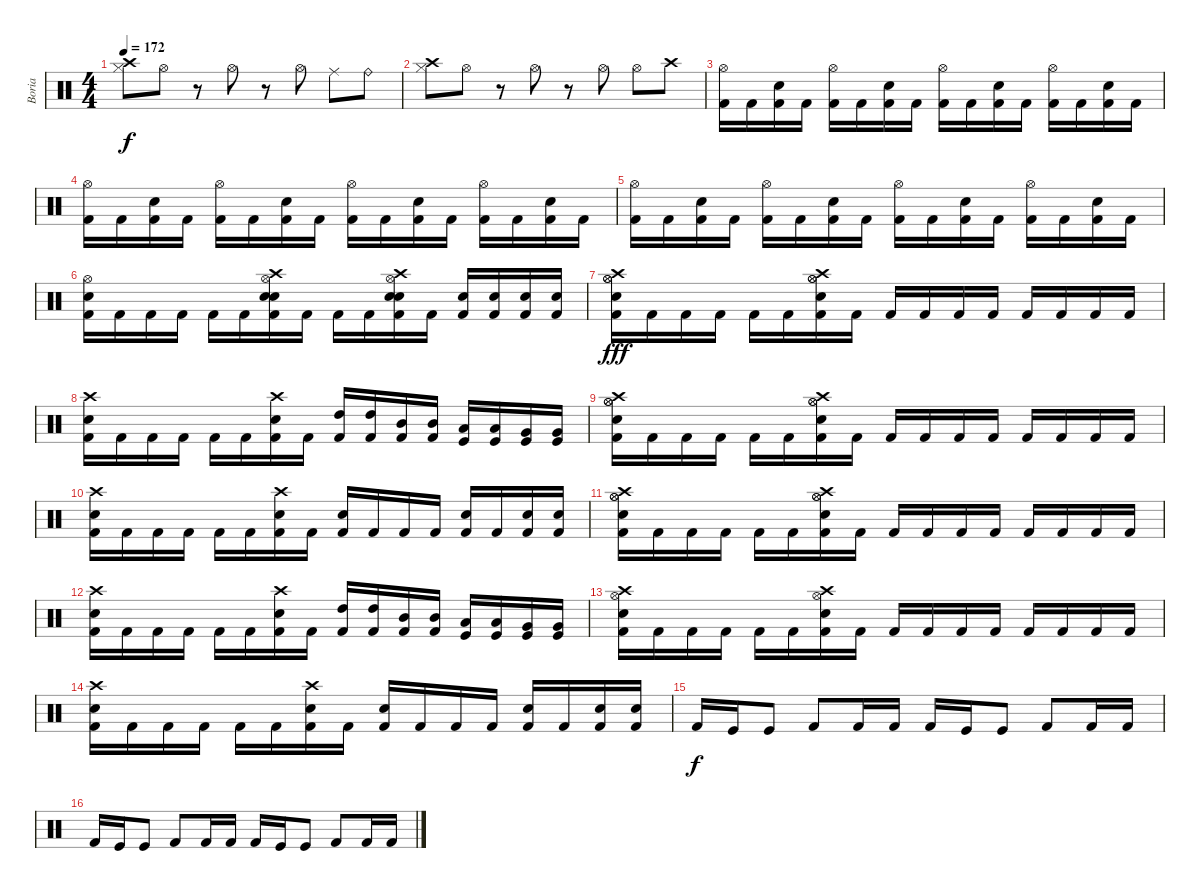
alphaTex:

\track ("Boria" "Boria") {instrument percussion}
\staff {score}
\articulation defaults
\ts (4 4)
\tempo 172
\clef neutral
\ks c
("Hi-Hat (closed)" "Crash high (hit)").8{dy f} "Hi-Hat (open)".8 r.8 "Hi-Hat (open)".8 r.8 "Hi-Hat (open)".8 "Ride (middle)".8 "Ride (bell)".8 |
("Hi-Hat (closed)" "Crash high (hit)").8 "Hi-Hat (open)".8 r.8 "Hi-Hat (open)".8 r.8 "Hi-Hat (open)".8 "Hi-Hat (open)".8 "Crash high (hit)".8 |
("Hi-Hat (open)" "Kick (hit) 2").16 "Kick (hit) 2".16 ("Electric Snare (hit)" "Kick (hit) 2").16 "Kick (hit) 2".16 ("Hi-Hat (open)" "Kick (hit) 2").16 "Kick (hit) 2".16 ("Electric Snare (hit)" "Kick (hit) 2").16 "Kick (hit) 2".16 ("Hi-Hat (open)" "Kick (hit) 2").16 "Kick (hit) 2".16 ("Electric Snare (hit)" "Kick (hit) 2").16 "Kick (hit) 2".16 ("Hi-Hat (open)" "Kick (hit) 2").16 "Kick (hit) 2".16 ("Electric Snare (hit)" "Kick (hit) 2").16 "Kick (hit) 2".16 |
("Hi-Hat (open)" "Kick (hit) 2").16 "Kick (hit) 2".16 ("Electric Snare (hit)" "Kick (hit) 2").16 "Kick (hit) 2".16 ("Hi-Hat (open)" "Kick (hit) 2").16 "Kick (hit) 2".16 ("Electric Snare (hit)" "Kick (hit) 2").16 "Kick (hit) 2".16 ("Hi-Hat (open)" "Kick (hit) 2").16 "Kick (hit) 2".16 ("Electric Snare (hit)" "Kick (hit) 2").16 "Kick (hit) 2".16 ("Hi-Hat (open)" "Kick (hit) 2").16 "Kick (hit) 2".16 ("Electric Snare (hit)" "Kick (hit) 2").16 "Kick (hit) 2".16 |
("Hi-Hat (open)" "Kick (hit) 2").16 "Kick (hit) 2".16 ("Electric Snare (hit)" "Kick (hit) 2").16 "Kick (hit) 2".16 ("Hi-Hat (open)" "Kick (hit) 2").16 "Kick (hit) 2".16 ("Electric Snare (hit)" "Kick (hit) 2").16 "Kick (hit) 2".16 ("Hi-Hat (open)" "Kick (hit) 2").16 "Kick (hit) 2".16 ("Electric Snare (hit)" "Kick (hit) 2").16 "Kick (hit) 2".16 ("Hi-Hat (open)" "Kick (hit) 2").16 "Kick (hit) 2".16 ("Electric Snare (hit)" "Kick (hit) 2").16 "Kick (hit) 2".16 |
("Hi-Hat (open)" "Electric Snare (hit)" "Kick (hit) 2").16 "Kick (hit) 2".16 "Kick (hit) 2".16 "Kick (hit) 2".16 "Kick (hit) 2".16 "Kick (hit) 2".16 ("Hi-Hat (open)" "Crash high (hit)" "Electric Snare (hit)" "Snare (hit) 2" "Kick (hit) 2").16 "Kick (hit) 2".16 "Kick (hit) 2".16 "Kick (hit) 2".16 ("Hi-Hat (open)" "Crash high (hit)" "Electric Snare (hit)" "Snare (hit) 2" "Kick (hit) 2").16 "Kick (hit) 2".16 ("Electric Snare (hit)" "Kick (hit) 2").16 ("Snare (hit) 2" "Kick (hit) 2").16 ("Electric Snare (hit)" "Kick (hit) 2").16 ("Snare (hit) 2" "Kick (hit) 2").16 |
("Crash high (hit)" "Hi-Hat (open)" "Hi-Hat (open)" "Snare (hit) 2" "Kick (hit) 2").16{dy fff} "Kick (hit) 2".16 "Kick (hit) 2".16 "Kick (hit) 2".16 "Kick (hit) 2".16 "Kick (hit) 2".16 ("Crash high (hit)" "Hi-Hat (open)" "Hi-Hat (open)" "Snare (hit) 2" "Kick (hit) 2").16 "Kick (hit) 2".16 "Kick (hit) 2".16 "Kick (hit) 2".16 "Kick (hit) 2".16 "Kick (hit) 2".16 "Kick (hit) 2".16 "Kick (hit) 2".16 "Kick (hit) 2".16 "Kick (hit) 2".16 |
("Crash high (hit)" "Snare (hit) 2" "Kick (hit) 2").16 "Kick (hit) 2".16 "Kick (hit) 2".16 "Kick (hit) 2".16 "Kick (hit) 2".16 "Kick (hit) 2".16 ("Crash high (hit)" "Snare (hit) 2" "Kick (hit) 2").16 "Kick (hit) 2".16 ("High Tom (hit)" "Kick (hit) 2").16 ("High Tom (hit)" "Kick (hit) 2").16 ("Mid Tom (hit)" "Kick (hit) 2").16 ("Mid Tom (hit)" "Kick (hit) 2").16 ("Low Tom (hit)" "Kick (hit)").16 ("Low Tom (hit)" "Kick (hit)").16 ("Very Low Tom (hit)" "Kick (hit)").16 ("Very Low Tom (hit)" "Kick (hit)").16 |
("Crash high (hit)" "Hi-Hat (open)" "Hi-Hat (open)" "Snare (hit) 2" "Kick (hit) 2").16 "Kick (hit) 2".16 "Kick (hit) 2".16 "Kick (hit) 2".16 "Kick (hit) 2".16 "Kick (hit) 2".16 ("Crash high (hit)" "Hi-Hat (open)" "Hi-Hat (open)" "Snare (hit) 2" "Kick (hit) 2").16 "Kick (hit) 2".16 "Kick (hit) 2".16 "Kick (hit) 2".16 "Kick (hit) 2".16 "Kick (hit) 2".16 "Kick (hit) 2".16 "Kick (hit) 2".16 "Kick (hit) 2".16 "Kick (hit) 2".16 |
("Crash high (hit)" "Snare (hit) 2" "Kick (hit) 2").16 "Kick (hit) 2".16 "Kick (hit) 2".16 "Kick (hit) 2".16 "Kick (hit) 2".16 "Kick (hit) 2".16 ("Crash high (hit)" "Snare (hit) 2" "Kick (hit) 2").16 "Kick (hit) 2".16 ("Snare (hit) 2" "Kick (hit) 2").16 "Kick (hit) 2".16 "Kick (hit) 2".16 "Kick (hit) 2".16 ("Electric Snare (hit)" "Kick (hit) 2").16 "Kick (hit) 2".16 ("Electric Snare (hit)" "Kick (hit) 2").16 ("Electric Snare (hit)" "Kick (hit) 2").16 |
("Crash high (hit)" "Hi-Hat (open)" "Hi-Hat (open)" "Snare (hit) 2" "Kick (hit) 2").16 "Kick (hit) 2".16 "Kick (hit) 2".16 "Kick (hit) 2".16 "Kick (hit) 2".16 "Kick (hit) 2".16 ("Crash high (hit)" "Hi-Hat (open)" "Hi-Hat (open)" "Snare (hit) 2" "Kick (hit) 2").16 "Kick (hit) 2".16 "Kick (hit) 2".16 "Kick (hit) 2".16 "Kick (hit) 2".16 "Kick (hit) 2".16 "Kick (hit) 2".16 "Kick (hit) 2".16 "Kick (hit) 2".16 "Kick (hit) 2".16 |
("Crash high (hit)" "Snare (hit) 2" "Kick (hit) 2").16 "Kick (hit) 2".16 "Kick (hit) 2".16 "Kick (hit) 2".16 "Kick (hit) 2".16 "Kick (hit) 2".16 ("Crash high (hit)" "Snare (hit) 2" "Kick (hit) 2").16 "Kick (hit) 2".16 ("High Tom (hit)" "Kick (hit) 2").16 ("High Tom (hit)" "Kick (hit) 2").16 ("Mid Tom (hit)" "Kick (hit) 2").16 ("Mid Tom (hit)" "Kick (hit) 2").16 ("Low Tom (hit)" "Kick (hit)").16 ("Low Tom (hit)" "Kick (hit)").16 ("Very Low Tom (hit)" "Kick (hit)").16 ("Very Low Tom (hit)" "Kick (hit)").16 |
("Crash high (hit)" "Hi-Hat (open)" "Snare (hit) 2" "Kick (hit) 2").16 "Kick (hit) 2".16 "Kick (hit) 2".16 "Kick (hit) 2".16 "Kick (hit) 2".16 "Kick (hit) 2".16 ("Crash high (hit)" "Hi-Hat (open)" "Snare (hit) 2" "Kick (hit) 2").16 "Kick (hit) 2".16 "Kick (hit) 2".16 "Kick (hit) 2".16 "Kick (hit) 2".16 "Kick (hit) 2".16 "Kick (hit) 2".16 "Kick (hit) 2".16 "Kick (hit) 2".16 "Kick (hit) 2".16 |
("Crash high (hit)" "Snare (hit) 2" "Kick (hit) 2").16 "Kick (hit) 2".16 "Kick (hit) 2".16 "Kick (hit) 2".16 "Kick (hit) 2".16 "Kick (hit) 2".16 ("Crash high (hit)" "Snare (hit) 2" "Kick (hit) 2").16 "Kick (hit) 2".16 ("Snare (hit) 2" "Kick (hit) 2").16 "Kick (hit) 2".16 "Kick (hit) 2".16 "Kick (hit) 2".16 ("Snare (hit) 2" "Kick (hit) 2").16 "Kick (hit) 2".16 ("Electric Snare (hit)" "Kick (hit) 2").16 ("Electric Snare (hit)" "Kick (hit) 2").16 |
"Kick (hit) 2".16{dy f} "Kick (hit)".16 "Kick (hit)".8 "Kick (hit) 2".8 "Kick (hit) 2".16 "Kick (hit) 2".16 "Kick (hit) 2".16 "Kick (hit)".16 "Kick (hit)".8 "Kick (hit) 2".8 "Kick (hit) 2".16 "Kick (hit) 2".16 |
"Kick (hit) 2".16 "Kick (hit)".16 "Kick (hit)".8 "Kick (hit) 2".8 "Kick (hit) 2".16 "Kick (hit) 2".16 "Kick (hit) 2".16 "Kick (hit)".16 "Kick (hit)".8 "Kick (hit) 2".8 "Kick (hit) 2".16 "Kick (hit) 2".16
